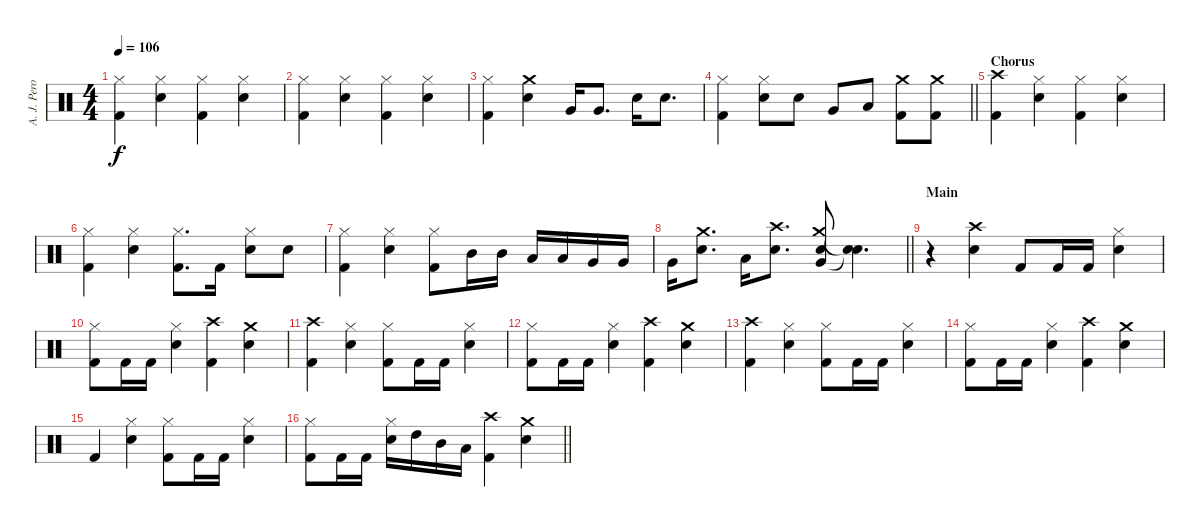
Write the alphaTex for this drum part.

\track ("A. J. Pero" "A. J. Pero") {instrument percussion}
\staff {score}
\articulation defaults
\ts (4 4)
\tempo 106
\clef neutral
\ks c
("Hi-Hat (closed)" "Kick (hit) 2").4{dy f} ("Hi-Hat (closed)" "Snare (hit) 2").4 ("Hi-Hat (closed)" "Kick (hit) 2").4 ("Hi-Hat (closed)" "Snare (hit) 2").4 |
("Hi-Hat (closed)" "Kick (hit) 2").4 ("Hi-Hat (closed)" "Snare (hit) 2").4 ("Hi-Hat (closed)" "Kick (hit) 2").4 ("Hi-Hat (closed)" "Snare (hit) 2").4 |
("Hi-Hat (closed)" "Kick (hit) 2").4 ("Crash medium (hit)" "Snare (hit) 2").4 "Very Low Tom (hit)".16 "Very Low Tom (hit)".8{d} "Snare (hit) 2".16 "Snare (hit) 2".8{d} |
\barLineRight lightlight
("Hi-Hat (closed)" "Kick (hit) 2").4 ("Hi-Hat (closed)" "Snare (hit) 2").8 "Snare (hit) 2".8 "Very Low Tom (hit)".8 "Low Tom (hit)".8 ("Crash medium (hit)" "Kick (hit) 2").8 ("Crash medium (hit)" "Kick (hit) 2").8 |
\section ("" "Chorus")
("Crash high (hit)" "Kick (hit) 2").4 ("Hi-Hat (closed)" "Snare (hit) 2").4 ("Hi-Hat (closed)" "Kick (hit) 2").4 ("Hi-Hat (closed)" "Snare (hit) 2").4 |
("Hi-Hat (closed)" "Kick (hit) 2").4 ("Hi-Hat (closed)" "Snare (hit) 2").4 ("Hi-Hat (closed)" "Kick (hit) 2").8{d} "Kick (hit) 2".16 ("Hi-Hat (closed)" "Snare (hit) 2").8 "Snare (hit) 2".8 |
("Hi-Hat (closed)" "Kick (hit) 2").4 ("Hi-Hat (closed)" "Snare (hit) 2").4 ("Hi-Hat (closed)" "Kick (hit) 2").8 "Mid Tom (hit)".16 "Mid Tom (hit)".16 "Low Tom (hit)".16 "Low Tom (hit)".16 "Very Low Tom (hit)".16 "Very Low Tom (hit)".16 |
\barLineRight lightlight "Very Low Tom (hit)".16
("Crash medium (hit)" "Snare (hit) 2").8{d} "Low Tom (hit)".16 ("Crash high (hit)" "Snare (hit) 2").8{d} ("Crash medium (hit)" "Very Low Tom (hit)" "Snare (hit) 2").8 ("Snare (hit)"{t} "Snare (hit)"{t}).4{d} |
\section ("" "Main")
r.4 ("Crash high (hit)" "Snare (hit) 2").4 "Kick (hit) 2".8 "Kick (hit) 2".16 "Kick (hit) 2".16 ("Hi-Hat (closed)" "Snare (hit) 2").4 |
("Hi-Hat (closed)" "Kick (hit) 2").8 "Kick (hit) 2".16 "Kick (hit) 2".16 ("Hi-Hat (closed)" "Snare (hit) 2").4 ("Crash high (hit)" "Kick (hit) 2").4 ("Crash medium (hit)" "Snare (hit) 2").4 |
("Crash high (hit)" "Kick (hit) 2").4 ("Hi-Hat (closed)" "Snare (hit) 2").4 ("Hi-Hat (closed)" "Kick (hit) 2").8 "Kick (hit) 2".16 "Kick (hit) 2".16 ("Hi-Hat (closed)" "Snare (hit) 2").4 |
("Hi-Hat (closed)" "Kick (hit) 2").8 "Kick (hit) 2".16 "Kick (hit) 2".16 ("Hi-Hat (closed)" "Snare (hit) 2").4 ("Crash high (hit)" "Kick (hit) 2").4 ("Crash medium (hit)" "Snare (hit) 2").4 |
("Crash high (hit)" "Kick (hit) 2").4 ("Hi-Hat (closed)" "Snare (hit) 2").4 ("Hi-Hat (closed)" "Kick (hit) 2").8 "Kick (hit) 2".16 "Kick (hit) 2".16 ("Hi-Hat (closed)" "Snare (hit) 2").4 |
("Hi-Hat (closed)" "Kick (hit) 2").8 "Kick (hit) 2".16 "Kick (hit) 2".16 ("Hi-Hat (closed)" "Snare (hit) 2").4 ("Crash high (hit)" "Kick (hit) 2").4 ("Crash medium (hit)" "Snare (hit) 2").4 |
"Kick (hit) 2".4 ("Hi-Hat (closed)" "Snare (hit) 2").4 ("Hi-Hat (closed)" "Kick (hit) 2").8 "Kick (hit) 2".16 "Kick (hit) 2".16 ("Hi-Hat (closed)" "Snare (hit) 2").4 |
\barLineRight lightlight
("Hi-Hat (closed)" "Kick (hit) 2").8 "Kick (hit) 2".16 "Kick (hit) 2".16 ("Hi-Hat (closed)" "Snare (hit) 2").16 "High Tom (hit)".16 "Mid Tom (hit)".16 "Low Tom (hit)".16 ("Crash high (hit)" "Kick (hit) 2").4 ("Crash medium (hit)" "Snare (hit) 2").4
